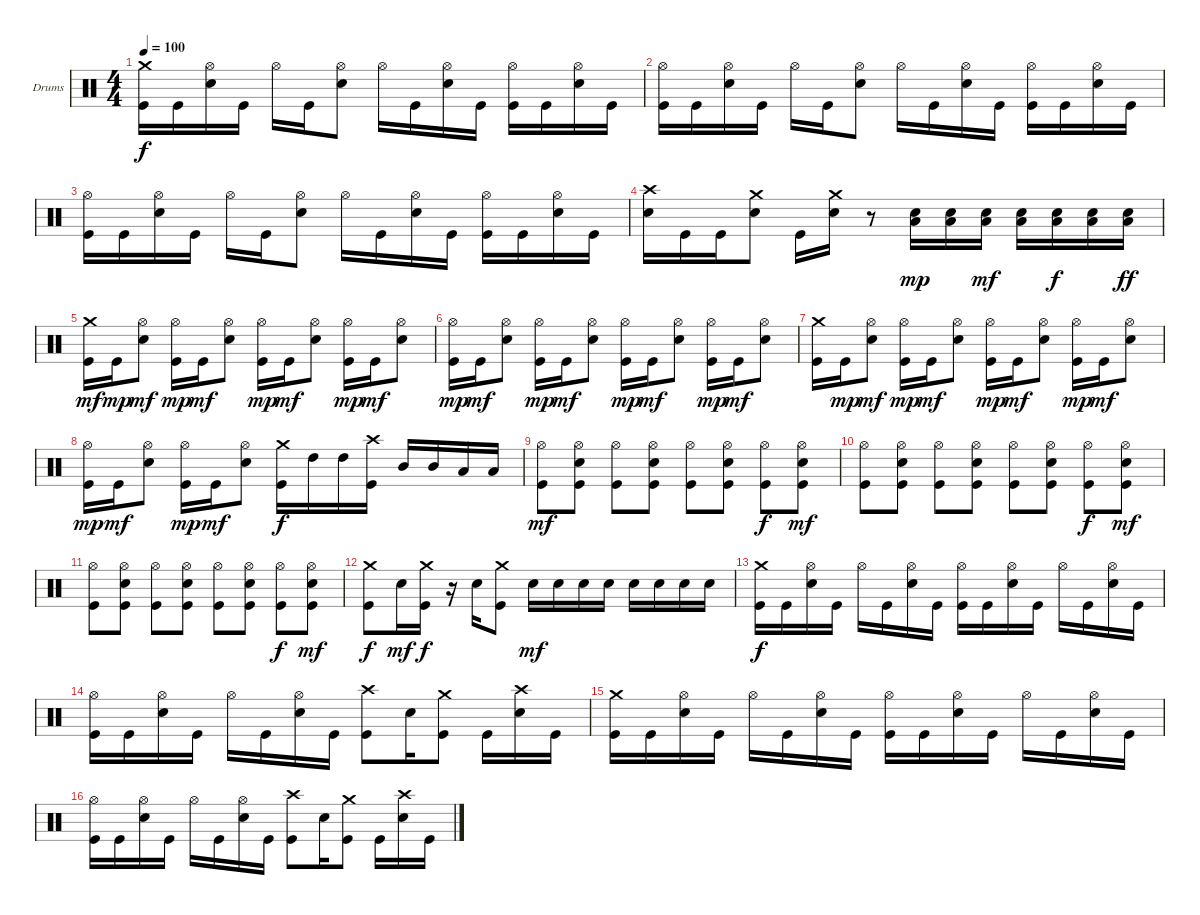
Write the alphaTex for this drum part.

\bracketExtendMode groupsimilarinstruments
\firstSystemTrackNameOrientation horizontal
\otherSystemsTrackNameOrientation horizontal
\track ("Drumkit" "Drums") {instrument percussion}
\staff {score}
\articulation defaults
\ts (4 4)
\tempo 100
\clef neutral
\ks c
("Crash medium (hit)" "Kick (hit)").16{dy f} "Kick (hit)".16 ("Hi-Hat (open)" "Snare (hit) 2").16 "Kick (hit)".16 "Hi-Hat (open)".16 "Kick (hit)".16 ("Hi-Hat (open)" "Snare (hit) 2").8 "Hi-Hat (open)".16 "Kick (hit)".16 ("Hi-Hat (open)" "Snare (hit) 2").16 "Kick (hit)".16 ("Hi-Hat (open)" "Kick (hit)").16 "Kick (hit)".16 ("Hi-Hat (open)" "Snare (hit) 2").16 "Kick (hit)".16 |
("Hi-Hat (open)" "Kick (hit)").16 "Kick (hit)".16 ("Hi-Hat (open)" "Snare (hit) 2").16 "Kick (hit)".16 "Hi-Hat (open)".16 "Kick (hit)".16 ("Hi-Hat (open)" "Snare (hit) 2").8 "Hi-Hat (open)".16 "Kick (hit)".16 ("Hi-Hat (open)" "Snare (hit) 2").16 "Kick (hit)".16 ("Hi-Hat (open)" "Kick (hit)").16 "Kick (hit)".16 ("Hi-Hat (open)" "Snare (hit) 2").16 "Kick (hit)".16 |
("Hi-Hat (open)" "Kick (hit)").16 "Kick (hit)".16 ("Hi-Hat (open)" "Snare (hit) 2").16 "Kick (hit)".16 "Hi-Hat (open)".16 "Kick (hit)".16 ("Hi-Hat (open)" "Snare (hit) 2").8 "Hi-Hat (open)".16 "Kick (hit)".16 ("Hi-Hat (open)" "Snare (hit) 2").16 "Kick (hit)".16 ("Hi-Hat (open)" "Kick (hit)").16 "Kick (hit)".16 ("Hi-Hat (open)" "Snare (hit) 2").16 "Kick (hit)".16 |
("Crash high (hit)" "Snare (hit) 2").16 "Kick (hit)".16 "Kick (hit)".16 ("Crash medium (hit)" "Snare (hit) 2").8 "Kick (hit)".16 ("Crash medium (hit)" "Snare (hit) 2").16 r.8 ("Low Tom (hit)" "Snare (hit) 2").16{dy mp} ("Low Tom (hit)" "Snare (hit) 2").16 ("Low Tom (hit)" "Snare (hit) 2").16{dy mf} ("Low Tom (hit)" "Snare (hit) 2").16 ("Low Tom (hit)" "Snare (hit) 2").16{dy f} ("Low Tom (hit)" "Snare (hit) 2").16 ("Low Tom (hit)" "Snare (hit) 2").16{dy ff} |
("Crash medium (hit)" "Kick (hit)").16{dy mf} "Kick (hit)".16{dy mp} ("Hi-Hat (open)" "Snare (hit) 2").8{dy mf} ("Kick (hit)" "Hi-Hat (open)").16{dy mp} "Kick (hit)".16{dy mf} ("Hi-Hat (open)" "Snare (hit) 2").8 ("Kick (hit)" "Hi-Hat (open)").16{dy mp} "Kick (hit)".16{dy mf} ("Hi-Hat (open)" "Snare (hit) 2").8 ("Kick (hit)" "Hi-Hat (open)").16{dy mp} "Kick (hit)".16{dy mf} ("Hi-Hat (open)" "Snare (hit) 2").8 |
("Kick (hit)" "Hi-Hat (open)").16{dy mp} "Kick (hit)".16{dy mf} ("Hi-Hat (open)" "Snare (hit) 2").8 ("Kick (hit)" "Hi-Hat (open)").16{dy mp} "Kick (hit)".16{dy mf} ("Hi-Hat (open)" "Snare (hit) 2").8 ("Kick (hit)" "Hi-Hat (open)").16{dy mp} "Kick (hit)".16{dy mf} ("Hi-Hat (open)" "Snare (hit) 2").8 ("Kick (hit)" "Hi-Hat (open)").16{dy mp} "Kick (hit)".16{dy mf} ("Hi-Hat (open)" "Snare (hit) 2").8 |
("Crash medium (hit)" "Kick (hit)").16 "Kick (hit)".16{dy mp} ("Hi-Hat (open)" "Snare (hit) 2").8{dy mf} ("Kick (hit)" "Hi-Hat (open)").16{dy mp} "Kick (hit)".16{dy mf} ("Hi-Hat (open)" "Snare (hit) 2").8 ("Kick (hit)" "Hi-Hat (open)").16{dy mp} "Kick (hit)".16{dy mf} ("Hi-Hat (open)" "Snare (hit) 2").8 ("Kick (hit)" "Hi-Hat (open)").16{dy mp} "Kick (hit)".16{dy mf} ("Hi-Hat (open)" "Snare (hit) 2").8 |
("Kick (hit)" "Hi-Hat (open)").16{dy mp} "Kick (hit)".16{dy mf} ("Hi-Hat (open)" "Snare (hit) 2").8 ("Kick (hit)" "Hi-Hat (open)").16{dy mp} "Kick (hit)".16{dy mf} ("Hi-Hat (open)" "Snare (hit) 2").8 ("Crash medium (hit)" "Kick (hit)").16{dy f} "High Tom (hit)".16 "High Tom (hit)".16 ("Crash high (hit)" "Kick (hit)").16 "Mid Tom (hit)".16 "Mid Tom (hit)".16 "Low Tom (hit)".16 "Low Tom (hit)".16 |
("Hi-Hat (open)" "Kick (hit)").8{dy mf} ("Hi-Hat (open)" "Snare (hit) 2" "Kick (hit)").8 ("Hi-Hat (open)" "Kick (hit)").8 ("Hi-Hat (open)" "Snare (hit) 2" "Kick (hit)").8 ("Hi-Hat (open)" "Kick (hit)").8 ("Hi-Hat (open)" "Snare (hit) 2" "Kick (hit)").8 ("Hi-Hat (open)" "Kick (hit)").8{dy f} ("Hi-Hat (open)" "Snare (hit) 2" "Kick (hit)").8{dy mf} |
("Hi-Hat (open)" "Kick (hit)").8 ("Hi-Hat (open)" "Snare (hit) 2" "Kick (hit)").8 ("Hi-Hat (open)" "Kick (hit)").8 ("Hi-Hat (open)" "Snare (hit) 2" "Kick (hit)").8 ("Hi-Hat (open)" "Kick (hit)").8 ("Hi-Hat (open)" "Snare (hit) 2" "Kick (hit)").8 ("Hi-Hat (open)" "Kick (hit)").8{dy f} ("Hi-Hat (open)" "Snare (hit) 2" "Kick (hit)").8{dy mf} |
("Hi-Hat (open)" "Kick (hit)").8 ("Hi-Hat (open)" "Snare (hit) 2" "Kick (hit)").8 ("Hi-Hat (open)" "Kick (hit)").8 ("Hi-Hat (open)" "Snare (hit) 2" "Kick (hit)").8 ("Hi-Hat (open)" "Kick (hit)").8 ("Hi-Hat (open)" "Snare (hit) 2" "Kick (hit)").8 ("Hi-Hat (open)" "Kick (hit)").8{dy f} ("Hi-Hat (open)" "Snare (hit) 2" "Kick (hit)").8{dy mf} |
("Crash medium (hit)" "Kick (hit)").8{dy f} "Snare (hit) 2".16{dy mf} ("Crash medium (hit)" "Kick (hit)").16{dy f} r.16 "Snare (hit) 2".16 ("Crash medium (hit)" "Kick (hit)").8 "Snare (hit) 2".16{dy mf} "Snare (hit) 2".16 "Snare (hit) 2".16 "Snare (hit) 2".16 "Snare (hit) 2".16 "Snare (hit) 2".16 "Snare (hit) 2".16 "Snare (hit) 2".16 |
("Crash medium (hit)" "Kick (hit)").16{dy f} "Kick (hit)".16 ("Hi-Hat (open)" "Snare (hit) 2").16 "Kick (hit)".16 "Hi-Hat (open)".16 "Kick (hit)".16 ("Hi-Hat (open)" "Snare (hit) 2").16 "Kick (hit)".16 ("Hi-Hat (open)" "Kick (hit)").16 "Kick (hit)".16 ("Hi-Hat (open)" "Snare (hit) 2").16 "Kick (hit)".16 "Hi-Hat (open)".16 "Kick (hit)".16 ("Hi-Hat (open)" "Snare (hit) 2").16 "Kick (hit)".16 |
("Hi-Hat (open)" "Kick (hit)").16 "Kick (hit)".16 ("Hi-Hat (open)" "Snare (hit) 2").16 "Kick (hit)".16 "Hi-Hat (open)".16 "Kick (hit)".16 ("Hi-Hat (open)" "Snare (hit) 2").16 "Kick (hit)".16 ("Crash high (hit)" "Kick (hit)").8 "Snare (hit) 2".16 ("Crash medium (hit)" "Kick (hit)").8 "Kick (hit)".16 ("Crash high (hit)" "Snare (hit) 2").16 "Kick (hit)".16 |
("Crash medium (hit)" "Kick (hit)").16 "Kick (hit)".16 ("Hi-Hat (open)" "Snare (hit) 2").16 "Kick (hit)".16 "Hi-Hat (open)".16 "Kick (hit)".16 ("Hi-Hat (open)" "Snare (hit) 2").16 "Kick (hit)".16 ("Hi-Hat (open)" "Kick (hit)").16 "Kick (hit)".16 ("Hi-Hat (open)" "Snare (hit) 2").16 "Kick (hit)".16 "Hi-Hat (open)".16 "Kick (hit)".16 ("Hi-Hat (open)" "Snare (hit) 2").16 "Kick (hit)".16 |
("Hi-Hat (open)" "Kick (hit)").16 "Kick (hit)".16 ("Hi-Hat (open)" "Snare (hit) 2").16 "Kick (hit)".16 "Hi-Hat (open)".16 "Kick (hit)".16 ("Hi-Hat (open)" "Snare (hit) 2").16 "Kick (hit)".16 ("Crash high (hit)" "Kick (hit)").8 "Snare (hit) 2".16 ("Crash medium (hit)" "Kick (hit)").8 "Kick (hit)".16 ("Crash high (hit)" "Snare (hit) 2").16 "Kick (hit)".16
